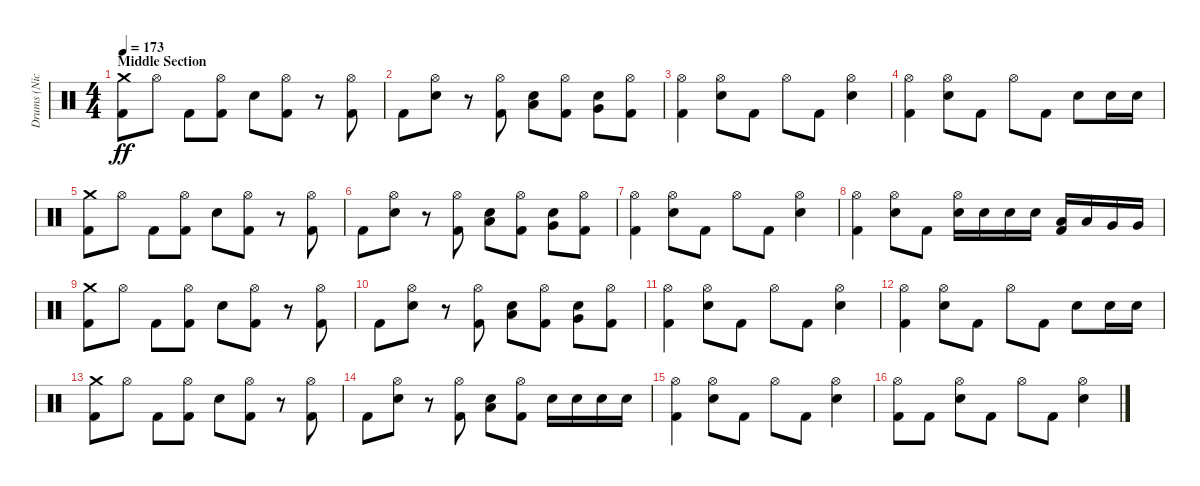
\track ("Drums (Nick Oshiro)" "Drums (Nic") {instrument percussion}
\staff {score}
\articulation defaults
\ts (4 4)
\section ("" "Middle Section")
\tempo 173
\clef neutral
\ks c
("Crash medium (hit)" "Kick (hit) 2").8{dy ff} "Hi-Hat (open)".8 "Kick (hit) 2".8 ("Hi-Hat (open)" "Kick (hit) 2").8 "Snare (hit) 2".8 ("Hi-Hat (open)" "Kick (hit) 2").8 r.8 ("Hi-Hat (open)" "Kick (hit) 2").8 |
"Kick (hit) 2".8 ("Hi-Hat (open)" "Snare (hit) 2").8 r.8 ("Hi-Hat (open)" "Kick (hit) 2").8 ("Low Tom (hit)" "Snare (hit) 2").8 ("Hi-Hat (open)" "Kick (hit) 2").8 ("Very Low Tom (hit)" "Snare (hit) 2").8 ("Hi-Hat (open)" "Kick (hit) 2").8 |
("Hi-Hat (open)" "Kick (hit) 2").4 ("Hi-Hat (open)" "Snare (hit) 2").8 "Kick (hit) 2".8 "Hi-Hat (open)".8 "Kick (hit) 2".8 ("Hi-Hat (open)" "Snare (hit) 2").4 |
("Hi-Hat (open)" "Kick (hit) 2").4 ("Hi-Hat (open)" "Snare (hit) 2").8 "Kick (hit) 2".8 "Hi-Hat (open)".8 "Kick (hit) 2".8 "Snare (hit) 2".8 "Snare (hit) 2".16 "Snare (hit) 2".16 |
("Crash medium (hit)" "Kick (hit) 2").8 "Hi-Hat (open)".8 "Kick (hit) 2".8 ("Hi-Hat (open)" "Kick (hit) 2").8 "Snare (hit) 2".8 ("Hi-Hat (open)" "Kick (hit) 2").8 r.8 ("Hi-Hat (open)" "Kick (hit) 2").8 |
"Kick (hit) 2".8 ("Hi-Hat (open)" "Snare (hit) 2").8 r.8 ("Hi-Hat (open)" "Kick (hit) 2").8 ("Low Tom (hit)" "Snare (hit) 2").8 ("Hi-Hat (open)" "Kick (hit) 2").8 ("Very Low Tom (hit)" "Snare (hit) 2").8 ("Hi-Hat (open)" "Kick (hit) 2").8 |
("Hi-Hat (open)" "Kick (hit) 2").4 ("Hi-Hat (open)" "Snare (hit) 2").8 "Kick (hit) 2".8 "Hi-Hat (open)".8 "Kick (hit) 2".8 ("Hi-Hat (open)" "Snare (hit) 2").4 |
("Hi-Hat (open)" "Kick (hit) 2").4 ("Hi-Hat (open)" "Snare (hit) 2").8 "Kick (hit) 2".8 ("Hi-Hat (open)" "Snare (hit) 2").16 "Snare (hit) 2".16 "Snare (hit) 2".16 "Snare (hit) 2".16 ("Low Tom (hit)" "Kick (hit) 2").16 "Low Tom (hit)".16 "Very Low Tom (hit)".16 "Very Low Tom (hit)".16 |
("Crash medium (hit)" "Kick (hit) 2").8 "Hi-Hat (open)".8 "Kick (hit) 2".8 ("Hi-Hat (open)" "Kick (hit) 2").8 "Snare (hit) 2".8 ("Hi-Hat (open)" "Kick (hit) 2").8 r.8 ("Hi-Hat (open)" "Kick (hit) 2").8 |
"Kick (hit) 2".8 ("Hi-Hat (open)" "Snare (hit) 2").8 r.8 ("Hi-Hat (open)" "Kick (hit) 2").8 ("Low Tom (hit)" "Snare (hit) 2").8 ("Hi-Hat (open)" "Kick (hit) 2").8 ("Very Low Tom (hit)" "Snare (hit) 2").8 ("Hi-Hat (open)" "Kick (hit) 2").8 |
("Hi-Hat (open)" "Kick (hit) 2").4 ("Hi-Hat (open)" "Snare (hit) 2").8 "Kick (hit) 2".8 "Hi-Hat (open)".8 "Kick (hit) 2".8 ("Hi-Hat (open)" "Snare (hit) 2").4 |
("Hi-Hat (open)" "Kick (hit) 2").4 ("Hi-Hat (open)" "Snare (hit) 2").8 "Kick (hit) 2".8 "Hi-Hat (open)".8 "Kick (hit) 2".8 "Snare (hit) 2".8 "Snare (hit) 2".16 "Snare (hit) 2".16 |
("Crash medium (hit)" "Kick (hit) 2").8 "Hi-Hat (open)".8 "Kick (hit) 2".8 ("Hi-Hat (open)" "Kick (hit) 2").8 "Snare (hit) 2".8 ("Hi-Hat (open)" "Kick (hit) 2").8 r.8 ("Hi-Hat (open)" "Kick (hit) 2").8 |
"Kick (hit) 2".8 ("Hi-Hat (open)" "Snare (hit) 2").8 r.8 ("Hi-Hat (open)" "Kick (hit) 2").8 ("Low Tom (hit)" "Snare (hit) 2").8 ("Hi-Hat (open)" "Kick (hit) 2").8 "Snare (hit) 2".16 "Snare (hit) 2".16 "Snare (hit) 2".16 "Snare (hit) 2".16 |
("Hi-Hat (open)" "Kick (hit) 2").4 ("Hi-Hat (open)" "Snare (hit) 2").8 "Kick (hit) 2".8 "Hi-Hat (open)".8 "Kick (hit) 2".8 ("Hi-Hat (open)" "Snare (hit) 2").4 |
("Hi-Hat (open)" "Kick (hit) 2").8 "Kick (hit) 2".8 ("Hi-Hat (open)" "Snare (hit) 2").8 "Kick (hit) 2".8 "Hi-Hat (open)".8 "Kick (hit) 2".8 ("Hi-Hat (open)" "Snare (hit) 2").4
